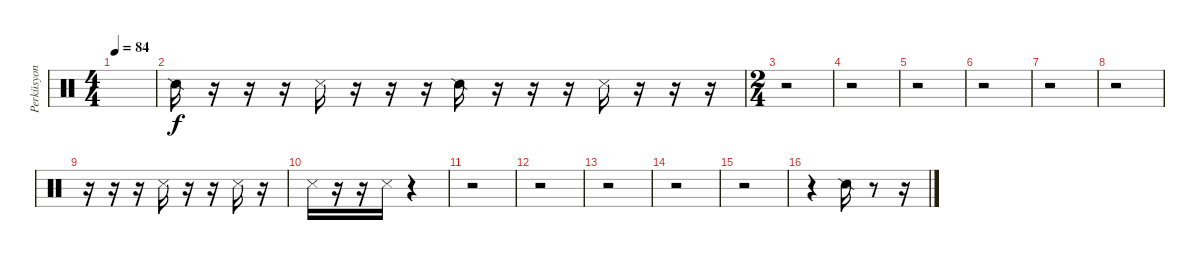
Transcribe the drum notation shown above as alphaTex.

\track ("Perküsyon" "Perküsyon") {instrument percussion}
\staff {score}
\articulation defaults
\ts (4 4)
\tempo 84
\clef neutral
\ks c
|
"Snare (side stick) 2".16 r.16 r.16 r.16 "Metronome (hit)".16 r.16 r.16 r.16 "Snare (side stick) 2".16 r.16 r.16 r.16 "Metronome (hit)".16 r.16 r.16 r.16 |
\ts (2 4)
r.2 |
r.2 |
r.2 |
r.2 |
r.2 |
r.2 |
r.16 r.16 r.16 "Metronome (hit)".16 r.16 r.16 "Metronome (hit)".16 r.16 |
"Metronome (hit)".16 r.16 r.16 "Metronome (hit)".16 r.4 |
r.2 |
r.2 |
r.2 |
r.2 |
r.2 |
r.4 "Snare (side stick) 2".16 r.8 r.16
